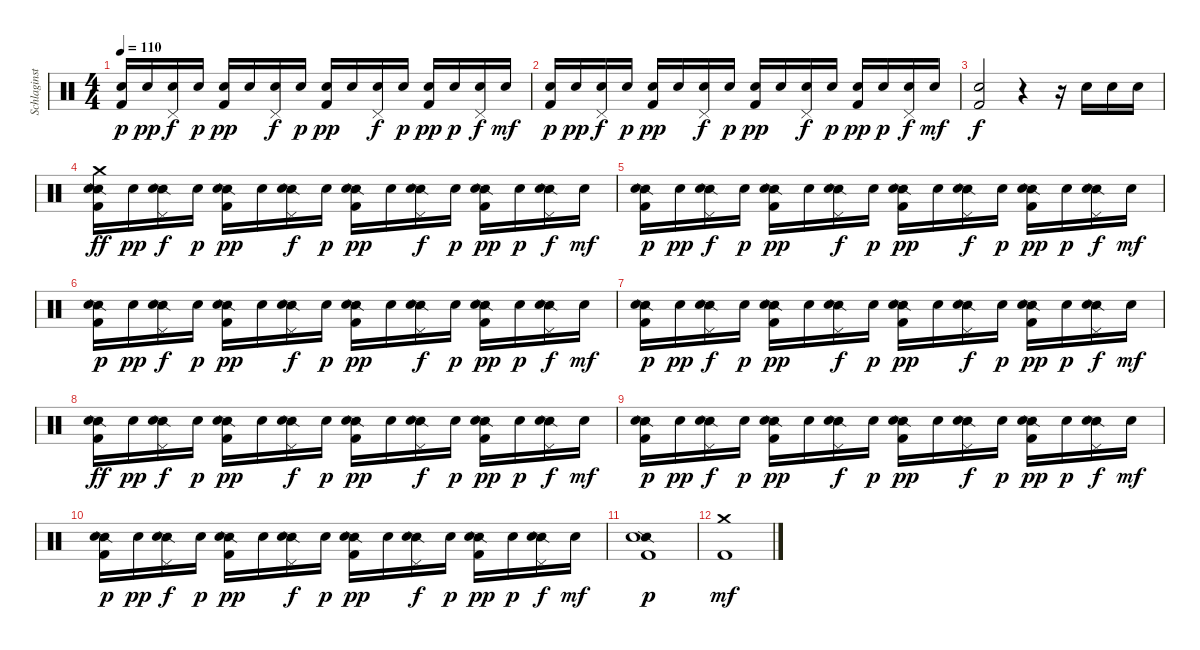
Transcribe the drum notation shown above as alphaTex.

\track ("Schlaginstrumente - Auswahl" "Schlaginst") {instrument percussion}
\staff {score}
\articulation defaults
\ts (4 4)
\tempo 110
\clef neutral
\ks c
("Snare (hit) 2" "Kick (hit) 2").16{dy p} "Snare (hit) 2".16{dy pp} ("Pedal Hi-Hat (hit)" "Snare (hit) 2").16{dy f} "Snare (hit) 2".16{dy p} ("Snare (hit) 2" "Kick (hit) 2").16{dy pp} "Snare (hit) 2".16 ("Pedal Hi-Hat (hit)" "Snare (hit) 2").16{dy f} "Snare (hit) 2".16{dy p} ("Snare (hit) 2" "Kick (hit) 2").16{dy pp} "Snare (hit) 2".16 ("Pedal Hi-Hat (hit)" "Snare (hit) 2").16{dy f} "Snare (hit) 2".16{dy p} ("Snare (hit) 2" "Kick (hit) 2").16{dy pp} "Snare (hit) 2".16{dy p} ("Pedal Hi-Hat (hit)" "Snare (hit) 2").16{dy f} "Snare (hit) 2".16{dy mf} |
("Snare (hit) 2" "Kick (hit) 2").16{dy p} "Snare (hit) 2".16{dy pp} ("Pedal Hi-Hat (hit)" "Snare (hit) 2").16{dy f} "Snare (hit) 2".16{dy p} ("Snare (hit) 2" "Kick (hit) 2").16{dy pp} "Snare (hit) 2".16 ("Pedal Hi-Hat (hit)" "Snare (hit) 2").16{dy f} "Snare (hit) 2".16{dy p} ("Snare (hit) 2" "Kick (hit) 2").16{dy pp} "Snare (hit) 2".16 ("Pedal Hi-Hat (hit)" "Snare (hit) 2").16{dy f} "Snare (hit) 2".16{dy p} ("Snare (hit) 2" "Kick (hit) 2").16{dy pp} "Snare (hit) 2".16{dy p} ("Pedal Hi-Hat (hit)" "Snare (hit) 2").16{dy f} "Snare (hit) 2".16{dy mf} |
("Snare (hit) 2" "Kick (hit) 2").2{dy f} r.4 r.16 "Snare (hit) 2".16 "Snare (hit) 2".16 "Snare (hit) 2".16 |
("Crash medium (hit)" "Snare (side stick) 2" "Snare (hit) 2" "Kick (hit) 2").16{dy ff} "Snare (hit) 2".16{dy pp} ("Pedal Hi-Hat (hit)" "Snare (side stick) 2" "Snare (hit) 2").16{dy f} "Snare (hit) 2".16{dy p} ("Snare (side stick) 2" "Snare (hit) 2" "Kick (hit) 2").16{dy pp} "Snare (hit) 2".16 ("Pedal Hi-Hat (hit)" "Snare (side stick) 2" "Snare (hit) 2").16{dy f} "Snare (hit) 2".16{dy p} ("Snare (side stick) 2" "Snare (hit) 2" "Kick (hit) 2").16{dy pp} "Snare (hit) 2".16 ("Pedal Hi-Hat (hit)" "Snare (side stick) 2" "Snare (hit) 2").16{dy f} "Snare (hit) 2".16{dy p} ("Snare (side stick) 2" "Snare (hit) 2" "Kick (hit) 2").16{dy pp} "Snare (hit) 2".16{dy p} ("Pedal Hi-Hat (hit)" "Snare (side stick) 2" "Snare (hit) 2").16{dy f} "Snare (hit) 2".16{dy mf} |
("Snare (side stick) 2" "Snare (hit) 2" "Kick (hit) 2").16{dy p} "Snare (hit) 2".16{dy pp} ("Pedal Hi-Hat (hit)" "Snare (side stick) 2" "Snare (hit) 2").16{dy f} "Snare (hit) 2".16{dy p} ("Snare (side stick) 2" "Snare (hit) 2" "Kick (hit) 2").16{dy pp} "Snare (hit) 2".16 ("Pedal Hi-Hat (hit)" "Snare (side stick) 2" "Snare (hit) 2").16{dy f} "Snare (hit) 2".16{dy p} ("Snare (side stick) 2" "Snare (hit) 2" "Kick (hit) 2").16{dy pp} "Snare (hit) 2".16 ("Pedal Hi-Hat (hit)" "Snare (side stick) 2" "Snare (hit) 2").16{dy f} "Snare (hit) 2".16{dy p} ("Snare (side stick) 2" "Snare (hit) 2" "Kick (hit) 2").16{dy pp} "Snare (hit) 2".16{dy p} ("Pedal Hi-Hat (hit)" "Snare (side stick) 2" "Snare (hit) 2").16{dy f} "Snare (hit) 2".16{dy mf} |
("Snare (side stick) 2" "Snare (hit) 2" "Kick (hit) 2").16{dy p} "Snare (hit) 2".16{dy pp} ("Pedal Hi-Hat (hit)" "Snare (side stick) 2" "Snare (hit) 2").16{dy f} "Snare (hit) 2".16{dy p} ("Snare (side stick) 2" "Snare (hit) 2" "Kick (hit) 2").16{dy pp} "Snare (hit) 2".16 ("Pedal Hi-Hat (hit)" "Snare (side stick) 2" "Snare (hit) 2").16{dy f} "Snare (hit) 2".16{dy p} ("Snare (side stick) 2" "Snare (hit) 2" "Kick (hit) 2").16{dy pp} "Snare (hit) 2".16 ("Pedal Hi-Hat (hit)" "Snare (side stick) 2" "Snare (hit) 2").16{dy f} "Snare (hit) 2".16{dy p} ("Snare (side stick) 2" "Snare (hit) 2" "Kick (hit) 2").16{dy pp} "Snare (hit) 2".16{dy p} ("Pedal Hi-Hat (hit)" "Snare (side stick) 2" "Snare (hit) 2").16{dy f} "Snare (hit) 2".16{dy mf} |
("Snare (side stick) 2" "Snare (hit) 2" "Kick (hit) 2").16{dy p} "Snare (hit) 2".16{dy pp} ("Pedal Hi-Hat (hit)" "Snare (side stick) 2" "Snare (hit) 2").16{dy f} "Snare (hit) 2".16{dy p} ("Snare (side stick) 2" "Snare (hit) 2" "Kick (hit) 2").16{dy pp} "Snare (hit) 2".16 ("Pedal Hi-Hat (hit)" "Snare (side stick) 2" "Snare (hit) 2").16{dy f} "Snare (hit) 2".16{dy p} ("Snare (side stick) 2" "Snare (hit) 2" "Kick (hit) 2").16{dy pp} "Snare (hit) 2".16 ("Pedal Hi-Hat (hit)" "Snare (side stick) 2" "Snare (hit) 2").16{dy f} "Snare (hit) 2".16{dy p} ("Snare (side stick) 2" "Snare (hit) 2" "Kick (hit) 2").16{dy pp} "Snare (hit) 2".16{dy p} ("Pedal Hi-Hat (hit)" "Snare (side stick) 2" "Snare (hit) 2").16{dy f} "Snare (hit) 2".16{dy mf} |
("Snare (side stick) 2" "Snare (hit) 2" "Kick (hit) 2").16{dy ff} "Snare (hit) 2".16{dy pp} ("Pedal Hi-Hat (hit)" "Snare (side stick) 2" "Snare (hit) 2").16{dy f} "Snare (hit) 2".16{dy p} ("Snare (side stick) 2" "Snare (hit) 2" "Kick (hit) 2").16{dy pp} "Snare (hit) 2".16 ("Pedal Hi-Hat (hit)" "Snare (side stick) 2" "Snare (hit) 2").16{dy f} "Snare (hit) 2".16{dy p} ("Snare (side stick) 2" "Snare (hit) 2" "Kick (hit) 2").16{dy pp} "Snare (hit) 2".16 ("Pedal Hi-Hat (hit)" "Snare (side stick) 2" "Snare (hit) 2").16{dy f} "Snare (hit) 2".16{dy p} ("Snare (side stick) 2" "Snare (hit) 2" "Kick (hit) 2").16{dy pp} "Snare (hit) 2".16{dy p} ("Pedal Hi-Hat (hit)" "Snare (side stick) 2" "Snare (hit) 2").16{dy f} "Snare (hit) 2".16{dy mf} |
("Snare (side stick) 2" "Snare (hit) 2" "Kick (hit) 2").16{dy p} "Snare (hit) 2".16{dy pp} ("Pedal Hi-Hat (hit)" "Snare (side stick) 2" "Snare (hit) 2").16{dy f} "Snare (hit) 2".16{dy p} ("Snare (side stick) 2" "Snare (hit) 2" "Kick (hit) 2").16{dy pp} "Snare (hit) 2".16 ("Pedal Hi-Hat (hit)" "Snare (side stick) 2" "Snare (hit) 2").16{dy f} "Snare (hit) 2".16{dy p} ("Snare (side stick) 2" "Snare (hit) 2" "Kick (hit) 2").16{dy pp} "Snare (hit) 2".16 ("Pedal Hi-Hat (hit)" "Snare (side stick) 2" "Snare (hit) 2").16{dy f} "Snare (hit) 2".16{dy p} ("Snare (side stick) 2" "Snare (hit) 2" "Kick (hit) 2").16{dy pp} "Snare (hit) 2".16{dy p} ("Pedal Hi-Hat (hit)" "Snare (side stick) 2" "Snare (hit) 2").16{dy f} "Snare (hit) 2".16{dy mf} |
("Snare (side stick) 2" "Snare (hit) 2" "Kick (hit) 2").16{dy p} "Snare (hit) 2".16{dy pp} ("Pedal Hi-Hat (hit)" "Snare (side stick) 2" "Snare (hit) 2").16{dy f} "Snare (hit) 2".16{dy p} ("Snare (side stick) 2" "Snare (hit) 2" "Kick (hit) 2").16{dy pp} "Snare (hit) 2".16 ("Pedal Hi-Hat (hit)" "Snare (side stick) 2" "Snare (hit) 2").16{dy f} "Snare (hit) 2".16{dy p} ("Snare (side stick) 2" "Snare (hit) 2" "Kick (hit) 2").16{dy pp} "Snare (hit) 2".16 ("Pedal Hi-Hat (hit)" "Snare (side stick) 2" "Snare (hit) 2").16{dy f} "Snare (hit) 2".16{dy p} ("Snare (side stick) 2" "Snare (hit) 2" "Kick (hit) 2").16{dy pp} "Snare (hit) 2".16{dy p} ("Pedal Hi-Hat (hit)" "Snare (side stick) 2" "Snare (hit) 2").16{dy f} "Snare (hit) 2".16{dy mf} |
("Snare (side stick) 2" "Snare (hit) 2" "Kick (hit) 2").1{dy p} |
("Crash medium (hit)" "Kick (hit) 2").1{dy mf}
